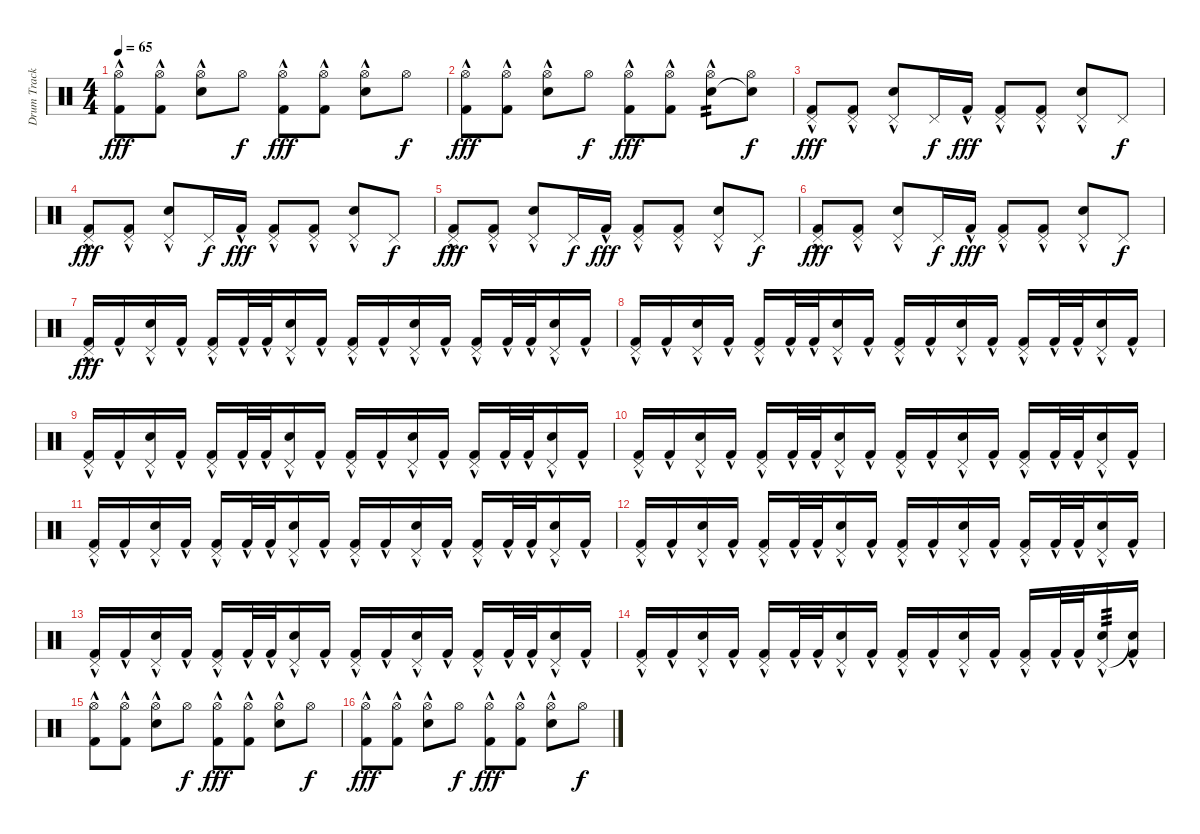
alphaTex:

\track ("Drum Track" "Drum Track") {instrument percussion}
\staff {score}
\articulation defaults
\ts (4 4)
\tempo 65
\clef neutral
\ks c
("Hi-Hat (open)" "Kick (hit) 2"{hac}).8{dy fff} ("Hi-Hat (open)" "Kick (hit) 2"{hac}).8 ("Hi-Hat (open)" "Electric Snare (hit)"{hac}).8 "Hi-Hat (open)".8{dy f} ("Hi-Hat (open)" "Kick (hit) 2"{hac}).8{dy fff} ("Hi-Hat (open)" "Kick (hit) 2"{hac}).8 ("Hi-Hat (open)" "Electric Snare (hit)"{hac}).8 "Hi-Hat (open)".8{dy f} |
("Hi-Hat (open)" "Kick (hit) 2"{hac}).8{dy fff} ("Hi-Hat (open)" "Kick (hit) 2"{hac}).8 ("Hi-Hat (open)" "Electric Snare (hit)"{hac}).8 "Hi-Hat (open)".8{dy f} ("Hi-Hat (open)" "Kick (hit) 2"{hac}).8{dy fff} ("Hi-Hat (open)" "Kick (hit) 2"{hac}).8 ("Hi-Hat (open)" "Electric Snare (hit)"{hac}).8{tp 2} ("Hi-Hat (open)" "Snare (hit)"{t}).8{dy f} |
("Pedal Hi-Hat (hit)" "Kick (hit) 2"{hac}).8{dy fff} ("Pedal Hi-Hat (hit)" "Kick (hit) 2"{hac}).8 ("Pedal Hi-Hat (hit)" "Electric Snare (hit)"{hac}).8 "Pedal Hi-Hat (hit)".16{dy f} "Kick (hit) 2"{hac}.16{dy fff} ("Pedal Hi-Hat (hit)" "Kick (hit) 2"{hac}).8 ("Pedal Hi-Hat (hit)" "Kick (hit) 2"{hac}).8 ("Pedal Hi-Hat (hit)" "Electric Snare (hit)"{hac}).8 "Pedal Hi-Hat (hit)".8{dy f} |
("Pedal Hi-Hat (hit)" "Kick (hit) 2"{hac}).8{dy fff} ("Pedal Hi-Hat (hit)" "Kick (hit) 2"{hac}).8 ("Pedal Hi-Hat (hit)" "Electric Snare (hit)"{hac}).8 "Pedal Hi-Hat (hit)".16{dy f} "Kick (hit) 2"{hac}.16{dy fff} ("Pedal Hi-Hat (hit)" "Kick (hit) 2"{hac}).8 ("Pedal Hi-Hat (hit)" "Kick (hit) 2"{hac}).8 ("Pedal Hi-Hat (hit)" "Electric Snare (hit)"{hac}).8 "Pedal Hi-Hat (hit)".8{dy f} |
("Pedal Hi-Hat (hit)" "Kick (hit) 2"{hac}).8{dy fff} ("Pedal Hi-Hat (hit)" "Kick (hit) 2"{hac}).8 ("Pedal Hi-Hat (hit)" "Electric Snare (hit)"{hac}).8 "Pedal Hi-Hat (hit)".16{dy f} "Kick (hit) 2"{hac}.16{dy fff} ("Pedal Hi-Hat (hit)" "Kick (hit) 2"{hac}).8 ("Pedal Hi-Hat (hit)" "Kick (hit) 2"{hac}).8 ("Pedal Hi-Hat (hit)" "Electric Snare (hit)"{hac}).8 "Pedal Hi-Hat (hit)".8{dy f} |
("Pedal Hi-Hat (hit)" "Kick (hit) 2"{hac}).8{dy fff} ("Pedal Hi-Hat (hit)" "Kick (hit) 2"{hac}).8 ("Pedal Hi-Hat (hit)" "Electric Snare (hit)"{hac}).8 "Pedal Hi-Hat (hit)".16{dy f} "Kick (hit) 2"{hac}.16{dy fff} ("Pedal Hi-Hat (hit)" "Kick (hit) 2"{hac}).8 ("Pedal Hi-Hat (hit)" "Kick (hit) 2"{hac}).8 ("Pedal Hi-Hat (hit)" "Electric Snare (hit)"{hac}).8 "Pedal Hi-Hat (hit)".8{dy f} |
("Pedal Hi-Hat (hit)" "Kick (hit) 2"{hac}).16{dy fff} "Kick (hit) 2"{hac}.16 ("Pedal Hi-Hat (hit)" "Electric Snare (hit)"{hac}).16 "Kick (hit) 2"{hac}.16 ("Pedal Hi-Hat (hit)" "Kick (hit) 2"{hac}).16 "Kick (hit) 2"{hac}.32 "Kick (hit) 2"{hac}.32 ("Pedal Hi-Hat (hit)" "Electric Snare (hit)"{hac}).16 "Kick (hit) 2"{hac}.16 ("Pedal Hi-Hat (hit)" "Kick (hit) 2"{hac}).16 "Kick (hit) 2"{hac}.16 ("Pedal Hi-Hat (hit)" "Electric Snare (hit)"{hac}).16 "Kick (hit) 2"{hac}.16 ("Pedal Hi-Hat (hit)" "Kick (hit) 2"{hac}).16 "Kick (hit) 2"{hac}.32 "Kick (hit) 2"{hac}.32 ("Pedal Hi-Hat (hit)" "Electric Snare (hit)"{hac}).16 "Kick (hit) 2"{hac}.16 |
("Pedal Hi-Hat (hit)" "Kick (hit) 2"{hac}).16 "Kick (hit) 2"{hac}.16 ("Pedal Hi-Hat (hit)" "Electric Snare (hit)"{hac}).16 "Kick (hit) 2"{hac}.16 ("Pedal Hi-Hat (hit)" "Kick (hit) 2"{hac}).16 "Kick (hit) 2"{hac}.32 "Kick (hit) 2"{hac}.32 ("Pedal Hi-Hat (hit)" "Electric Snare (hit)"{hac}).16 "Kick (hit) 2"{hac}.16 ("Pedal Hi-Hat (hit)" "Kick (hit) 2"{hac}).16 "Kick (hit) 2"{hac}.16 ("Pedal Hi-Hat (hit)" "Electric Snare (hit)"{hac}).16 "Kick (hit) 2"{hac}.16 ("Pedal Hi-Hat (hit)" "Kick (hit) 2"{hac}).16 "Kick (hit) 2"{hac}.32 "Kick (hit) 2"{hac}.32 ("Pedal Hi-Hat (hit)" "Electric Snare (hit)"{hac}).16 "Kick (hit) 2"{hac}.16 |
("Pedal Hi-Hat (hit)" "Kick (hit) 2"{hac}).16 "Kick (hit) 2"{hac}.16 ("Pedal Hi-Hat (hit)" "Electric Snare (hit)"{hac}).16 "Kick (hit) 2"{hac}.16 ("Pedal Hi-Hat (hit)" "Kick (hit) 2"{hac}).16 "Kick (hit) 2"{hac}.32 "Kick (hit) 2"{hac}.32 ("Pedal Hi-Hat (hit)" "Electric Snare (hit)"{hac}).16 "Kick (hit) 2"{hac}.16 ("Pedal Hi-Hat (hit)" "Kick (hit) 2"{hac}).16 "Kick (hit) 2"{hac}.16 ("Pedal Hi-Hat (hit)" "Electric Snare (hit)"{hac}).16 "Kick (hit) 2"{hac}.16 ("Pedal Hi-Hat (hit)" "Kick (hit) 2"{hac}).16 "Kick (hit) 2"{hac}.32 "Kick (hit) 2"{hac}.32 ("Pedal Hi-Hat (hit)" "Electric Snare (hit)"{hac}).16 "Kick (hit) 2"{hac}.16 |
("Pedal Hi-Hat (hit)" "Kick (hit) 2"{hac}).16 "Kick (hit) 2"{hac}.16 ("Pedal Hi-Hat (hit)" "Electric Snare (hit)"{hac}).16 "Kick (hit) 2"{hac}.16 ("Pedal Hi-Hat (hit)" "Kick (hit) 2"{hac}).16 "Kick (hit) 2"{hac}.32 "Kick (hit) 2"{hac}.32 ("Pedal Hi-Hat (hit)" "Electric Snare (hit)"{hac}).16 "Kick (hit) 2"{hac}.16 ("Pedal Hi-Hat (hit)" "Kick (hit) 2"{hac}).16 "Kick (hit) 2"{hac}.16 ("Pedal Hi-Hat (hit)" "Electric Snare (hit)"{hac}).16 "Kick (hit) 2"{hac}.16 ("Pedal Hi-Hat (hit)" "Kick (hit) 2"{hac}).16 "Kick (hit) 2"{hac}.32 "Kick (hit) 2"{hac}.32 ("Pedal Hi-Hat (hit)" "Electric Snare (hit)"{hac}).16 "Kick (hit) 2"{hac}.16 |
("Pedal Hi-Hat (hit)" "Kick (hit) 2"{hac}).16 "Kick (hit) 2"{hac}.16 ("Pedal Hi-Hat (hit)" "Electric Snare (hit)"{hac}).16 "Kick (hit) 2"{hac}.16 ("Pedal Hi-Hat (hit)" "Kick (hit) 2"{hac}).16 "Kick (hit) 2"{hac}.32 "Kick (hit) 2"{hac}.32 ("Pedal Hi-Hat (hit)" "Electric Snare (hit)"{hac}).16 "Kick (hit) 2"{hac}.16 ("Pedal Hi-Hat (hit)" "Kick (hit) 2"{hac}).16 "Kick (hit) 2"{hac}.16 ("Pedal Hi-Hat (hit)" "Electric Snare (hit)"{hac}).16 "Kick (hit) 2"{hac}.16 ("Pedal Hi-Hat (hit)" "Kick (hit) 2"{hac}).16 "Kick (hit) 2"{hac}.32 "Kick (hit) 2"{hac}.32 ("Pedal Hi-Hat (hit)" "Electric Snare (hit)"{hac}).16 "Kick (hit) 2"{hac}.16 |
("Pedal Hi-Hat (hit)" "Kick (hit) 2"{hac}).16 "Kick (hit) 2"{hac}.16 ("Pedal Hi-Hat (hit)" "Electric Snare (hit)"{hac}).16 "Kick (hit) 2"{hac}.16 ("Pedal Hi-Hat (hit)" "Kick (hit) 2"{hac}).16 "Kick (hit) 2"{hac}.32 "Kick (hit) 2"{hac}.32 ("Pedal Hi-Hat (hit)" "Electric Snare (hit)"{hac}).16 "Kick (hit) 2"{hac}.16 ("Pedal Hi-Hat (hit)" "Kick (hit) 2"{hac}).16 "Kick (hit) 2"{hac}.16 ("Pedal Hi-Hat (hit)" "Electric Snare (hit)"{hac}).16 "Kick (hit) 2"{hac}.16 ("Pedal Hi-Hat (hit)" "Kick (hit) 2"{hac}).16 "Kick (hit) 2"{hac}.32 "Kick (hit) 2"{hac}.32 ("Pedal Hi-Hat (hit)" "Electric Snare (hit)"{hac}).16 "Kick (hit) 2"{hac}.16 |
("Pedal Hi-Hat (hit)" "Kick (hit) 2"{hac}).16 "Kick (hit) 2"{hac}.16 ("Pedal Hi-Hat (hit)" "Electric Snare (hit)"{hac}).16 "Kick (hit) 2"{hac}.16 ("Pedal Hi-Hat (hit)" "Kick (hit) 2"{hac}).16 "Kick (hit) 2"{hac}.32 "Kick (hit) 2"{hac}.32 ("Pedal Hi-Hat (hit)" "Electric Snare (hit)"{hac}).16 "Kick (hit) 2"{hac}.16 ("Pedal Hi-Hat (hit)" "Kick (hit) 2"{hac}).16 "Kick (hit) 2"{hac}.16 ("Pedal Hi-Hat (hit)" "Electric Snare (hit)"{hac}).16 "Kick (hit) 2"{hac}.16 ("Pedal Hi-Hat (hit)" "Kick (hit) 2"{hac}).16 "Kick (hit) 2"{hac}.32 "Kick (hit) 2"{hac}.32 ("Pedal Hi-Hat (hit)" "Electric Snare (hit)"{hac}).16 "Kick (hit) 2"{hac}.16 |
("Pedal Hi-Hat (hit)" "Kick (hit) 2"{hac}).16 "Kick (hit) 2"{hac}.16 ("Pedal Hi-Hat (hit)" "Electric Snare (hit)"{hac}).16 "Kick (hit) 2"{hac}.16 ("Pedal Hi-Hat (hit)" "Kick (hit) 2"{hac}).16 "Kick (hit) 2"{hac}.32 "Kick (hit) 2"{hac}.32 ("Pedal Hi-Hat (hit)" "Electric Snare (hit)"{hac}).16 "Kick (hit) 2"{hac}.16 ("Pedal Hi-Hat (hit)" "Kick (hit) 2"{hac}).16 "Kick (hit) 2"{hac}.16 ("Pedal Hi-Hat (hit)" "Electric Snare (hit)"{hac}).16 "Kick (hit) 2"{hac}.16 ("Pedal Hi-Hat (hit)" "Kick (hit) 2"{hac}).16 "Kick (hit) 2"{hac}.32 "Kick (hit) 2"{hac}.32 ("Pedal Hi-Hat (hit)" "Electric Snare (hit)"{hac}).16{tp 3} ("Snare (hit)"{t} "Kick (hit) 2"{hac}).16 |
("Hi-Hat (open)" "Kick (hit) 2"{hac}).8 ("Hi-Hat (open)" "Kick (hit) 2"{hac}).8 ("Hi-Hat (open)" "Electric Snare (hit)"{hac}).8 "Hi-Hat (open)".8{dy f} ("Hi-Hat (open)" "Kick (hit) 2"{hac}).8{dy fff} ("Hi-Hat (open)" "Kick (hit) 2"{hac}).8 ("Hi-Hat (open)" "Electric Snare (hit)"{hac}).8 "Hi-Hat (open)".8{dy f} |
("Hi-Hat (open)" "Kick (hit) 2"{hac}).8{dy fff} ("Hi-Hat (open)" "Kick (hit) 2"{hac}).8 ("Hi-Hat (open)" "Electric Snare (hit)"{hac}).8 "Hi-Hat (open)".8{dy f} ("Hi-Hat (open)" "Kick (hit) 2"{hac}).8{dy fff} ("Hi-Hat (open)" "Kick (hit) 2"{hac}).8 ("Hi-Hat (open)" "Electric Snare (hit)"{hac}).8 "Hi-Hat (open)".8{dy f}
